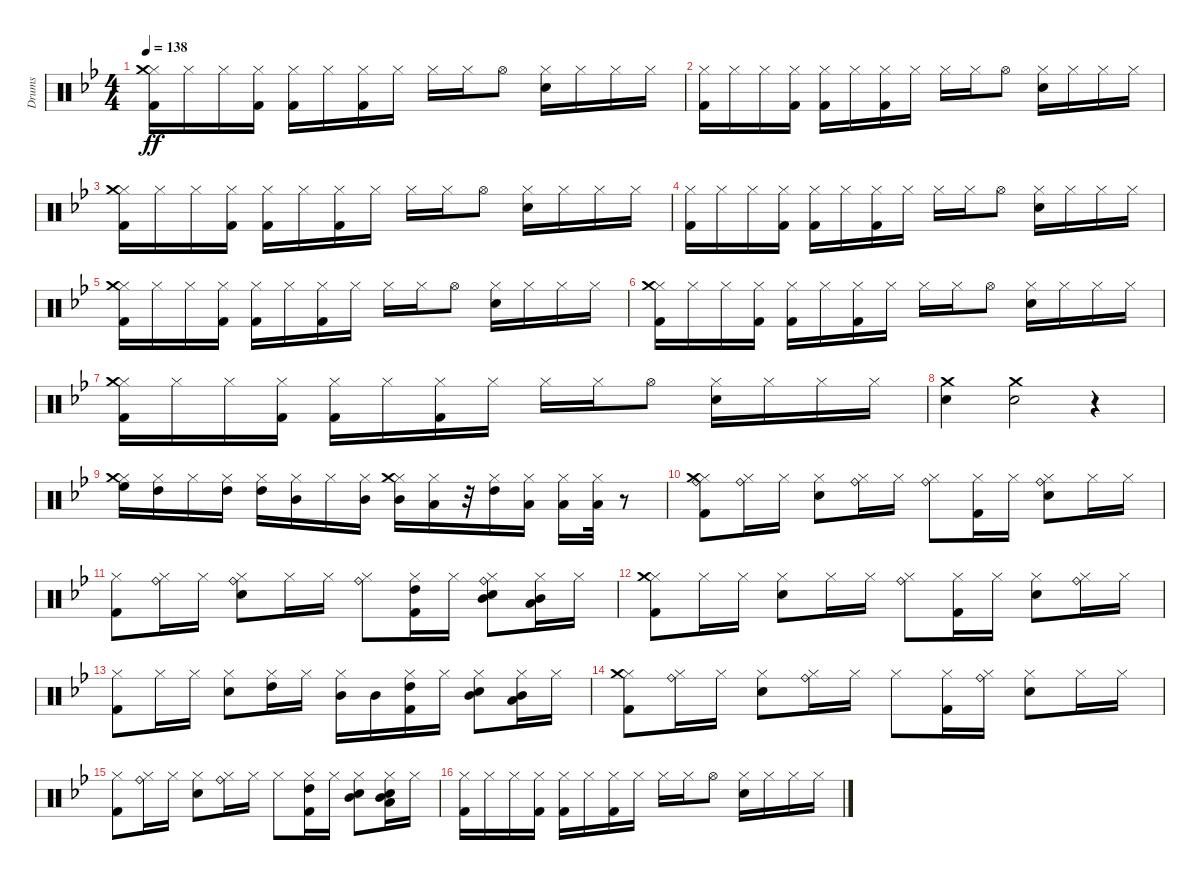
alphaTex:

\track ("Drums" "Drums") {instrument percussion}
\staff {score}
\articulation defaults
\ts (4 4)
\tempo 138
\clef neutral
\ks bb
("Kick (hit) 2" "Hi-Hat (closed)" "Crash medium (hit)").16{dy ff} "Hi-Hat (closed)".16 "Hi-Hat (closed)".16 ("Kick (hit) 2" "Hi-Hat (closed)").16 ("Kick (hit) 2" "Hi-Hat (closed)").16 "Hi-Hat (closed)".16 ("Kick (hit) 2" "Hi-Hat (closed)").16 "Hi-Hat (closed)".16 "Hi-Hat (closed)".16 "Hi-Hat (closed)".16 "Hi-Hat (open)".8 ("Snare (hit) 2" "Hi-Hat (closed)").16 "Hi-Hat (closed)".16 "Hi-Hat (closed)".16 "Hi-Hat (closed)".16 |
("Kick (hit) 2" "Hi-Hat (closed)").16 "Hi-Hat (closed)".16 "Hi-Hat (closed)".16 ("Kick (hit) 2" "Hi-Hat (closed)").16 ("Kick (hit) 2" "Hi-Hat (closed)").16 "Hi-Hat (closed)".16 ("Kick (hit) 2" "Hi-Hat (closed)").16 "Hi-Hat (closed)".16 "Hi-Hat (closed)".16 "Hi-Hat (closed)".16 "Hi-Hat (open)".8 ("Snare (hit) 2" "Hi-Hat (closed)").16 "Hi-Hat (closed)".16 "Hi-Hat (closed)".16 "Hi-Hat (closed)".16 |
("Kick (hit) 2" "Hi-Hat (closed)" "Crash medium (hit)").16 "Hi-Hat (closed)".16 "Hi-Hat (closed)".16 ("Kick (hit) 2" "Hi-Hat (closed)").16 ("Kick (hit) 2" "Hi-Hat (closed)").16 "Hi-Hat (closed)".16 ("Kick (hit) 2" "Hi-Hat (closed)").16 "Hi-Hat (closed)".16 "Hi-Hat (closed)".16 "Hi-Hat (closed)".16 "Hi-Hat (open)".8 ("Snare (hit) 2" "Hi-Hat (closed)").16 "Hi-Hat (closed)".16 "Hi-Hat (closed)".16 "Hi-Hat (closed)".16 |
("Kick (hit) 2" "Hi-Hat (closed)").16 "Hi-Hat (closed)".16 "Hi-Hat (closed)".16 ("Kick (hit) 2" "Hi-Hat (closed)").16 ("Kick (hit) 2" "Hi-Hat (closed)").16 "Hi-Hat (closed)".16 ("Kick (hit) 2" "Hi-Hat (closed)").16 "Hi-Hat (closed)".16 "Hi-Hat (closed)".16 "Hi-Hat (closed)".16 "Hi-Hat (open)".8 ("Snare (hit) 2" "Hi-Hat (closed)").16 "Hi-Hat (closed)".16 "Hi-Hat (closed)".16 "Hi-Hat (closed)".16 |
("Kick (hit) 2" "Hi-Hat (closed)" "Crash medium (hit)").16 "Hi-Hat (closed)".16 "Hi-Hat (closed)".16 ("Kick (hit) 2" "Hi-Hat (closed)").16 ("Kick (hit) 2" "Hi-Hat (closed)").16 "Hi-Hat (closed)".16 ("Kick (hit) 2" "Hi-Hat (closed)").16 "Hi-Hat (closed)".16 "Hi-Hat (closed)".16 "Hi-Hat (closed)".16 "Hi-Hat (open)".8 ("Snare (hit) 2" "Hi-Hat (closed)").16 "Hi-Hat (closed)".16 "Hi-Hat (closed)".16 "Hi-Hat (closed)".16 |
("Kick (hit) 2" "Hi-Hat (closed)" "Crash medium (hit)").16 "Hi-Hat (closed)".16 "Hi-Hat (closed)".16 ("Kick (hit) 2" "Hi-Hat (closed)").16 ("Kick (hit) 2" "Hi-Hat (closed)").16 "Hi-Hat (closed)".16 ("Kick (hit) 2" "Hi-Hat (closed)").16 "Hi-Hat (closed)".16 "Hi-Hat (closed)".16 "Hi-Hat (closed)".16 "Hi-Hat (open)".8 ("Snare (hit) 2" "Hi-Hat (closed)").16 "Hi-Hat (closed)".16 "Hi-Hat (closed)".16 "Hi-Hat (closed)".16 |
("Kick (hit) 2" "Hi-Hat (closed)" "Crash medium (hit)").16 "Hi-Hat (closed)".16 "Hi-Hat (closed)".16 ("Kick (hit) 2" "Hi-Hat (closed)").16 ("Kick (hit) 2" "Hi-Hat (closed)").16 "Hi-Hat (closed)".16 ("Kick (hit) 2" "Hi-Hat (closed)").16 "Hi-Hat (closed)".16 "Hi-Hat (closed)".16 "Hi-Hat (closed)".16 "Hi-Hat (open)".8 ("Snare (hit) 2" "Hi-Hat (closed)").16 "Hi-Hat (closed)".16 "Hi-Hat (closed)".16 "Hi-Hat (closed)".16 |
("Snare (hit) 2" "Crash medium (hit)").4 ("Snare (hit) 2" "Crash medium (hit)").2 r.4 |
("Hi-Hat (closed)" "High Floor Tom (hit)" "Crash medium (hit)").16 ("Hi-Hat (closed)" "High Tom (hit)").16 "Hi-Hat (closed)".16 ("Hi-Hat (closed)" "High Tom (hit)").16 ("Hi-Hat (closed)" "High Tom (hit)").16 ("Hi-Hat (closed)" "Mid Tom (hit)").16 "Hi-Hat (closed)".16 ("Hi-Hat (closed)" "Mid Tom (hit)").16 ("Hi-Hat (closed)" "Mid Tom (hit)" "Crash medium (hit)").16 ("Hi-Hat (closed)" "Low Tom (hit)").16 r.32 ("Hi-Hat (closed)" "High Tom (hit)").16 ("Hi-Hat (closed)" "Low Tom (hit)").16 ("Hi-Hat (closed)" "Low Tom (hit)").16 ("Hi-Hat (closed)" "Low Tom (hit)").32 r.8 |
("Kick (hit) 2" "Hi-Hat (closed)" "Ride (bell)" "Crash medium (hit)").8 ("Hi-Hat (closed)" "Ride (bell)").16 "Hi-Hat (closed)".16 ("Snare (hit) 2" "Hi-Hat (closed)").8 ("Hi-Hat (closed)" "Ride (bell)").16 "Hi-Hat (closed)".16 ("Hi-Hat (closed)" "Ride (bell)").8 ("Kick (hit) 2" "Hi-Hat (closed)").16 "Hi-Hat (closed)".16 ("Snare (hit) 2" "Hi-Hat (closed)" "Ride (bell)").8 "Hi-Hat (closed)".16 "Hi-Hat (closed)".16 |
("Kick (hit) 2" "Hi-Hat (closed)").8 ("Hi-Hat (closed)" "Ride (bell)").16 "Hi-Hat (closed)".16 ("Snare (hit) 2" "Hi-Hat (closed)" "Ride (bell)").8 "Hi-Hat (closed)".16 "Hi-Hat (closed)".16 ("Hi-Hat (closed)" "Ride (bell)").8 ("Kick (hit) 2" "Hi-Hat (closed)" "High Tom (hit)").16 "Hi-Hat (closed)".16 ("Snare (hit) 2" "Hi-Hat (closed)" "Mid Tom (hit)" "Ride (bell)").8 ("Hi-Hat (closed)" "Low Tom (hit)" "Mid Tom (hit)").16 "Hi-Hat (closed)".16 |
("Kick (hit) 2" "Hi-Hat (closed)" "Crash medium (hit)").8 "Hi-Hat (closed)".16 "Hi-Hat (closed)".16 ("Snare (hit) 2" "Hi-Hat (closed)").8 "Hi-Hat (closed)".16 "Hi-Hat (closed)".16 ("Hi-Hat (closed)" "Ride (bell)").8 ("Kick (hit) 2" "Hi-Hat (closed)").16 "Hi-Hat (closed)".16 ("Snare (hit) 2" "Hi-Hat (closed)").8 ("Hi-Hat (closed)" "Ride (bell)").16 "Hi-Hat (closed)".16 |
("Kick (hit) 2" "Hi-Hat (closed)").8 "Hi-Hat (closed)".16 "Hi-Hat (closed)".16 ("Snare (hit) 2" "Hi-Hat (closed)").8 ("Hi-Hat (closed)" "High Tom (hit)").16 "Hi-Hat (closed)".16 ("Hi-Hat (closed)" "Mid Tom (hit)").16 "Mid Tom (hit)".16 ("Kick (hit) 2" "Hi-Hat (closed)" "High Tom (hit)").16 "Hi-Hat (closed)".16 ("Snare (hit) 2" "Hi-Hat (closed)" "Mid Tom (hit)").8 ("Hi-Hat (closed)" "Low Tom (hit)" "Mid Tom (hit)").16 "Hi-Hat (closed)".16 |
("Kick (hit) 2" "Hi-Hat (closed)" "Crash medium (hit)").8 ("Hi-Hat (closed)" "Ride (bell)").16 "Hi-Hat (closed)".16 ("Snare (hit) 2" "Hi-Hat (closed)").8 ("Hi-Hat (closed)" "Ride (bell)").16 "Hi-Hat (closed)".16 "Hi-Hat (closed)".8 ("Kick (hit) 2" "Hi-Hat (closed)").16 ("Hi-Hat (closed)" "Ride (bell)").16 ("Snare (hit) 2" "Hi-Hat (closed)").8 "Hi-Hat (closed)".16 "Hi-Hat (closed)".16 |
("Kick (hit) 2" "Hi-Hat (closed)").8 ("Hi-Hat (closed)" "Ride (bell)").16 "Hi-Hat (closed)".16 ("Snare (hit) 2" "Hi-Hat (closed)").8 ("Hi-Hat (closed)" "Ride (bell)").16 "Hi-Hat (closed)".16 "Hi-Hat (closed)".8 ("Kick (hit) 2" "Hi-Hat (closed)" "High Tom (hit)").16 "Hi-Hat (closed)".16 ("Snare (hit) 2" "Hi-Hat (closed)" "Mid Tom (hit)").8 ("Snare (hit) 2" "Hi-Hat (closed)" "Low Tom (hit)" "Mid Tom (hit)").16 "Hi-Hat (closed)".16 |
("Kick (hit) 2" "Hi-Hat (closed)").16 "Hi-Hat (closed)".16 "Hi-Hat (closed)".16 ("Kick (hit) 2" "Hi-Hat (closed)").16 ("Kick (hit) 2" "Hi-Hat (closed)").16 "Hi-Hat (closed)".16 ("Kick (hit) 2" "Hi-Hat (closed)").16 "Hi-Hat (closed)".16 "Hi-Hat (closed)".16 "Hi-Hat (closed)".16 "Hi-Hat (open)".8 ("Snare (hit) 2" "Hi-Hat (closed)").16 "Hi-Hat (closed)".16 "Hi-Hat (closed)".16 "Hi-Hat (closed)".16
